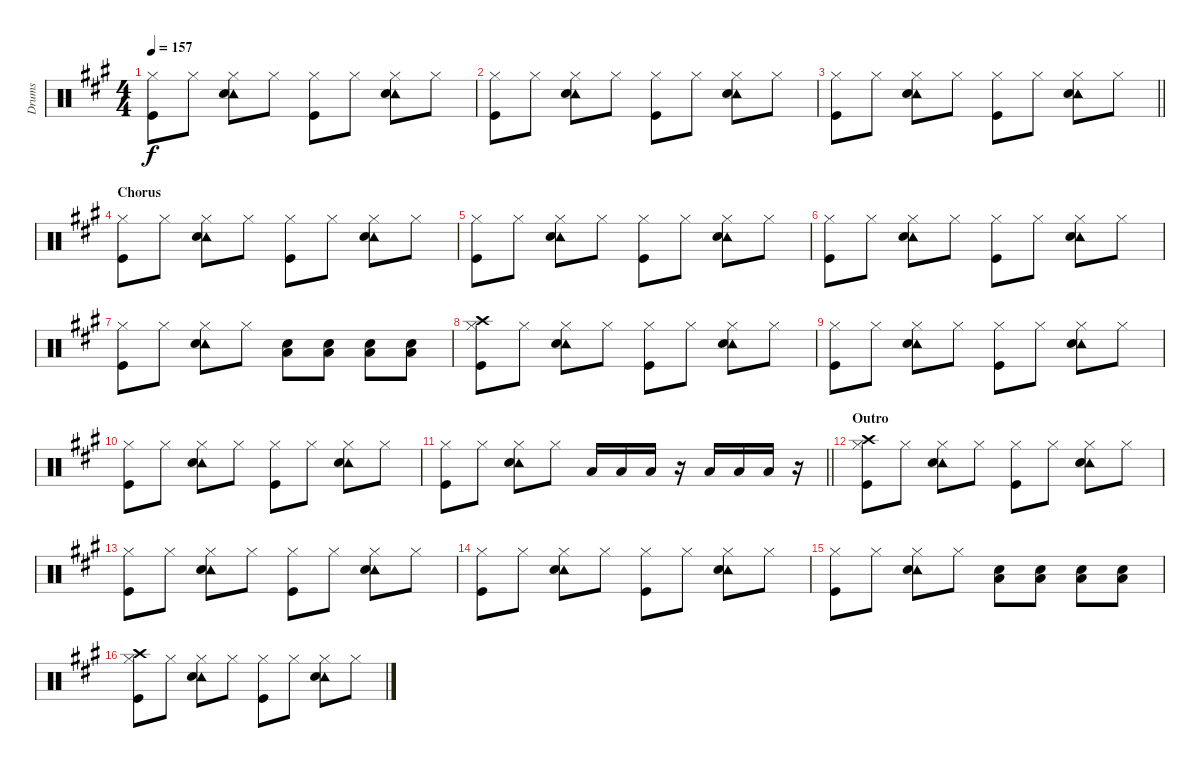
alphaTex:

\track ("Drums" "Drums") {instrument percussion}
\staff {score}
\articulation defaults
\ts (4 4)
\tempo 157
\clef neutral
\ks a
("Hi-Hat (closed)" "Kick (hit)").8{dy f} "Hi-Hat (closed)".8 ("Hi-Hat (closed)" "Tambourine (hit)" "Electric Snare (hit)").8 "Hi-Hat (closed)".8 ("Hi-Hat (closed)" "Kick (hit)").8 "Hi-Hat (closed)".8 ("Hi-Hat (closed)" "Tambourine (hit)" "Electric Snare (hit)").8 "Hi-Hat (closed)".8 |
("Hi-Hat (closed)" "Kick (hit)").8 "Hi-Hat (closed)".8 ("Hi-Hat (closed)" "Tambourine (hit)" "Electric Snare (hit)").8 "Hi-Hat (closed)".8 ("Hi-Hat (closed)" "Kick (hit)").8 "Hi-Hat (closed)".8 ("Hi-Hat (closed)" "Tambourine (hit)" "Electric Snare (hit)").8 "Hi-Hat (closed)".8 |
\barLineRight lightlight
("Hi-Hat (closed)" "Kick (hit)").8 "Hi-Hat (closed)".8 ("Hi-Hat (closed)" "Tambourine (hit)" "Electric Snare (hit)").8 "Hi-Hat (closed)".8 ("Hi-Hat (closed)" "Kick (hit)").8 "Hi-Hat (closed)".8 ("Hi-Hat (closed)" "Tambourine (hit)" "Electric Snare (hit)").8 "Hi-Hat (closed)".8 |
\section ("" "Chorus")
("Hi-Hat (closed)" "Kick (hit)").8 "Hi-Hat (closed)".8 ("Hi-Hat (closed)" "Tambourine (hit)" "Electric Snare (hit)").8 "Hi-Hat (closed)".8 ("Hi-Hat (closed)" "Kick (hit)").8 "Hi-Hat (closed)".8 ("Hi-Hat (closed)" "Tambourine (hit)" "Electric Snare (hit)").8 "Hi-Hat (closed)".8 |
("Hi-Hat (closed)" "Kick (hit)").8 "Hi-Hat (closed)".8 ("Hi-Hat (closed)" "Tambourine (hit)" "Electric Snare (hit)").8 "Hi-Hat (closed)".8 ("Hi-Hat (closed)" "Kick (hit)").8 "Hi-Hat (closed)".8 ("Hi-Hat (closed)" "Tambourine (hit)" "Electric Snare (hit)").8 "Hi-Hat (closed)".8 |
("Hi-Hat (closed)" "Kick (hit)").8 "Hi-Hat (closed)".8 ("Hi-Hat (closed)" "Tambourine (hit)" "Electric Snare (hit)").8 "Hi-Hat (closed)".8 ("Hi-Hat (closed)" "Kick (hit)").8 "Hi-Hat (closed)".8 ("Hi-Hat (closed)" "Tambourine (hit)" "Electric Snare (hit)").8 "Hi-Hat (closed)".8 |
("Hi-Hat (closed)" "Kick (hit)").8 "Hi-Hat (closed)".8 ("Hi-Hat (closed)" "Tambourine (hit)" "Electric Snare (hit)").8 "Hi-Hat (closed)".8 ("Electric Snare (hit)" "Low Floor Tom (hit)").8 ("Electric Snare (hit)" "Low Floor Tom (hit)").8 ("Electric Snare (hit)" "Low Floor Tom (hit)").8 ("Electric Snare (hit)" "Low Floor Tom (hit)").8 |
("Hi-Hat (closed)" "Crash high (hit)" "Kick (hit)").8 "Hi-Hat (closed)".8 ("Hi-Hat (closed)" "Tambourine (hit)" "Electric Snare (hit)").8 "Hi-Hat (closed)".8 ("Hi-Hat (closed)" "Kick (hit)").8 "Hi-Hat (closed)".8 ("Hi-Hat (closed)" "Tambourine (hit)" "Electric Snare (hit)").8 "Hi-Hat (closed)".8 |
("Hi-Hat (closed)" "Kick (hit)").8 "Hi-Hat (closed)".8 ("Hi-Hat (closed)" "Tambourine (hit)" "Electric Snare (hit)").8 "Hi-Hat (closed)".8 ("Hi-Hat (closed)" "Kick (hit)").8 "Hi-Hat (closed)".8 ("Hi-Hat (closed)" "Tambourine (hit)" "Electric Snare (hit)").8 "Hi-Hat (closed)".8 |
("Hi-Hat (closed)" "Kick (hit)").8 "Hi-Hat (closed)".8 ("Hi-Hat (closed)" "Tambourine (hit)" "Electric Snare (hit)").8 "Hi-Hat (closed)".8 ("Hi-Hat (closed)" "Kick (hit)").8 "Hi-Hat (closed)".8 ("Hi-Hat (closed)" "Tambourine (hit)" "Electric Snare (hit)").8 "Hi-Hat (closed)".8 |
\barLineRight lightlight
("Hi-Hat (closed)" "Kick (hit)").8 "Hi-Hat (closed)".8 ("Hi-Hat (closed)" "Tambourine (hit)" "Electric Snare (hit)").8 "Hi-Hat (closed)".8 "Low Tom (hit)".16 "Low Tom (hit)".16 "Low Tom (hit)".16 r.16 "Low Floor Tom (hit)".16 "Low Floor Tom (hit)".16 "Low Floor Tom (hit)".16 r.16 |
\section ("" "Outro")
("Hi-Hat (closed)" "Crash high (hit)" "Kick (hit)").8 "Hi-Hat (closed)".8 ("Hi-Hat (closed)" "Tambourine (hit)" "Electric Snare (hit)").8 "Hi-Hat (closed)".8 ("Hi-Hat (closed)" "Kick (hit)").8 "Hi-Hat (closed)".8 ("Hi-Hat (closed)" "Tambourine (hit)" "Electric Snare (hit)").8 "Hi-Hat (closed)".8 |
("Hi-Hat (closed)" "Kick (hit)").8 "Hi-Hat (closed)".8 ("Hi-Hat (closed)" "Tambourine (hit)" "Electric Snare (hit)").8 "Hi-Hat (closed)".8 ("Hi-Hat (closed)" "Kick (hit)").8 "Hi-Hat (closed)".8 ("Hi-Hat (closed)" "Tambourine (hit)" "Electric Snare (hit)").8 "Hi-Hat (closed)".8 |
("Hi-Hat (closed)" "Kick (hit)").8 "Hi-Hat (closed)".8 ("Hi-Hat (closed)" "Tambourine (hit)" "Electric Snare (hit)").8 "Hi-Hat (closed)".8 ("Hi-Hat (closed)" "Kick (hit)").8 "Hi-Hat (closed)".8 ("Hi-Hat (closed)" "Tambourine (hit)" "Electric Snare (hit)").8 "Hi-Hat (closed)".8 |
("Hi-Hat (closed)" "Kick (hit)").8 "Hi-Hat (closed)".8 ("Hi-Hat (closed)" "Tambourine (hit)" "Electric Snare (hit)").8 "Hi-Hat (closed)".8 ("Electric Snare (hit)" "Low Floor Tom (hit)").8 ("Electric Snare (hit)" "Low Floor Tom (hit)").8 ("Electric Snare (hit)" "Low Floor Tom (hit)").8 ("Electric Snare (hit)" "Low Floor Tom (hit)").8 |
("Hi-Hat (closed)" "Crash high (hit)" "Kick (hit)").8 "Hi-Hat (closed)".8 ("Hi-Hat (closed)" "Tambourine (hit)" "Electric Snare (hit)").8 "Hi-Hat (closed)".8 ("Hi-Hat (closed)" "Kick (hit)").8 "Hi-Hat (closed)".8 ("Hi-Hat (closed)" "Tambourine (hit)" "Electric Snare (hit)").8 "Hi-Hat (closed)".8
